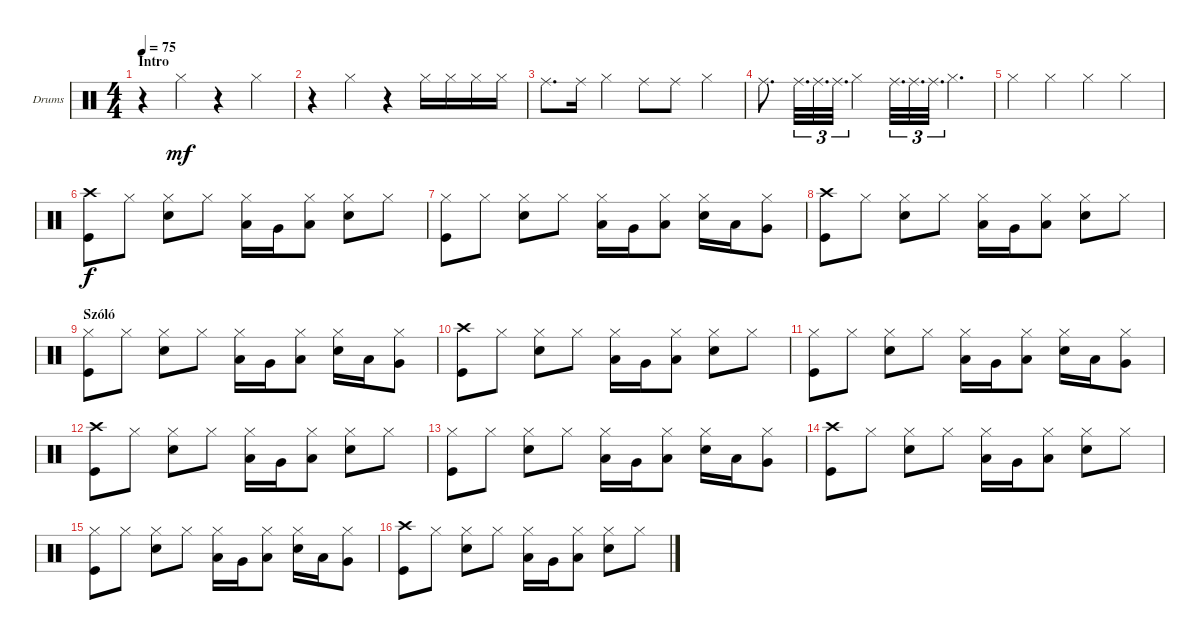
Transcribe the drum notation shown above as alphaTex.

\defaultSystemsLayout 4
\bracketExtendMode groupsimilarinstruments
\firstSystemTrackNameOrientation horizontal
\otherSystemsTrackNameOrientation horizontal
\track ("Craig Nunenmacher" "Drums") {instrument percussion}
\staff {score}
\articulation defaults
\ts (4 4)
\section ("" "Intro")
\tempo 75
\clef neutral
\ks c
r.4{dy mf} "Hi-Hat (closed)".4 r.4 "Hi-Hat (closed)".4 |
r.4 "Hi-Hat (closed)".4 r.4 "Hi-Hat (closed)".16 "Hi-Hat (closed)".16 "Hi-Hat (closed)".16 "Hi-Hat (closed)".16 |
"Ride (middle)".8{d} "Ride (middle)".16 "Hi-Hat (closed)".4 "Ride (middle)".8 "Ride (middle)".8 "Hi-Hat (closed)".4 |
"Ride (middle)".8{d} "Ride (middle)".32{d tu (3 2)} "Ride (middle)".32{d tu (3 2)} "Ride (middle)".32{d tu (3 2)} "Hi-Hat (closed)".4 "Ride (middle)".32{d tu (3 2)} "Ride (middle)".32{d tu (3 2)} "Ride (middle)".32{d tu (3 2)} "Hi-Hat (closed)".4{d} |
"Hi-Hat (closed)".4 "Hi-Hat (closed)".4 "Hi-Hat (closed)".4 "Hi-Hat (closed)".4 |
("Kick (hit)" "Crash high (hit)").8{dy f} "Hi-Hat (closed)".8 ("Snare (hit) 2" "Hi-Hat (closed)").8 "Hi-Hat (closed)".8 ("Low Tom (hit)" "Hi-Hat (closed)").16 "Very Low Tom (hit)".16 ("Low Tom (hit)" "Hi-Hat (closed)").8 ("Snare (hit) 2" "Hi-Hat (closed)").8 "Hi-Hat (closed)".8 |
("Kick (hit)" "Hi-Hat (closed)").8 "Hi-Hat (closed)".8 ("Snare (hit) 2" "Hi-Hat (closed)").8 "Hi-Hat (closed)".8 ("Low Tom (hit)" "Hi-Hat (closed)").16 "Very Low Tom (hit)".16 ("Low Tom (hit)" "Hi-Hat (closed)").8 ("Snare (hit) 2" "Hi-Hat (closed)").16 "Low Tom (hit)".16 ("Very Low Tom (hit)" "Hi-Hat (closed)").8 |
("Kick (hit)" "Crash high (hit)").8 "Hi-Hat (closed)".8 ("Snare (hit) 2" "Hi-Hat (closed)").8 "Hi-Hat (closed)".8 ("Low Tom (hit)" "Hi-Hat (closed)").16 "Very Low Tom (hit)".16 ("Low Tom (hit)" "Hi-Hat (closed)").8 ("Snare (hit) 2" "Hi-Hat (closed)").8 "Hi-Hat (closed)".8 |
\section ("" "Szóló")
("Kick (hit)" "Hi-Hat (closed)").8 "Hi-Hat (closed)".8 ("Snare (hit) 2" "Hi-Hat (closed)").8 "Hi-Hat (closed)".8 ("Low Tom (hit)" "Hi-Hat (closed)").16 "Very Low Tom (hit)".16 ("Low Tom (hit)" "Hi-Hat (closed)").8 ("Snare (hit) 2" "Hi-Hat (closed)").16 "Low Tom (hit)".16 ("Very Low Tom (hit)" "Hi-Hat (closed)").8 |
("Kick (hit)" "Crash high (hit)").8 "Hi-Hat (closed)".8 ("Snare (hit) 2" "Hi-Hat (closed)").8 "Hi-Hat (closed)".8 ("Low Tom (hit)" "Hi-Hat (closed)").16 "Very Low Tom (hit)".16 ("Low Tom (hit)" "Hi-Hat (closed)").8 ("Snare (hit) 2" "Hi-Hat (closed)").8 "Hi-Hat (closed)".8 |
("Kick (hit)" "Hi-Hat (closed)").8 "Hi-Hat (closed)".8 ("Snare (hit) 2" "Hi-Hat (closed)").8 "Hi-Hat (closed)".8 ("Low Tom (hit)" "Hi-Hat (closed)").16 "Very Low Tom (hit)".16 ("Low Tom (hit)" "Hi-Hat (closed)").8 ("Snare (hit) 2" "Hi-Hat (closed)").16 "Low Tom (hit)".16 ("Very Low Tom (hit)" "Hi-Hat (closed)").8 |
("Kick (hit)" "Crash high (hit)").8 "Hi-Hat (closed)".8 ("Snare (hit) 2" "Hi-Hat (closed)").8 "Hi-Hat (closed)".8 ("Low Tom (hit)" "Hi-Hat (closed)").16 "Very Low Tom (hit)".16 ("Low Tom (hit)" "Hi-Hat (closed)").8 ("Snare (hit) 2" "Hi-Hat (closed)").8 "Hi-Hat (closed)".8 |
("Kick (hit)" "Hi-Hat (closed)").8 "Hi-Hat (closed)".8 ("Snare (hit) 2" "Hi-Hat (closed)").8 "Hi-Hat (closed)".8 ("Low Tom (hit)" "Hi-Hat (closed)").16 "Very Low Tom (hit)".16 ("Low Tom (hit)" "Hi-Hat (closed)").8 ("Snare (hit) 2" "Hi-Hat (closed)").16 "Low Tom (hit)".16 ("Very Low Tom (hit)" "Hi-Hat (closed)").8 |
("Kick (hit)" "Crash high (hit)").8 "Hi-Hat (closed)".8 ("Snare (hit) 2" "Hi-Hat (closed)").8 "Hi-Hat (closed)".8 ("Low Tom (hit)" "Hi-Hat (closed)").16 "Very Low Tom (hit)".16 ("Low Tom (hit)" "Hi-Hat (closed)").8 ("Snare (hit) 2" "Hi-Hat (closed)").8 "Hi-Hat (closed)".8 |
("Kick (hit)" "Hi-Hat (closed)").8 "Hi-Hat (closed)".8 ("Snare (hit) 2" "Hi-Hat (closed)").8 "Hi-Hat (closed)".8 ("Low Tom (hit)" "Hi-Hat (closed)").16 "Very Low Tom (hit)".16 ("Low Tom (hit)" "Hi-Hat (closed)").8 ("Snare (hit) 2" "Hi-Hat (closed)").16 "Low Tom (hit)".16 ("Very Low Tom (hit)" "Hi-Hat (closed)").8 |
("Kick (hit)" "Crash high (hit)").8 "Hi-Hat (closed)".8 ("Snare (hit) 2" "Hi-Hat (closed)").8 "Hi-Hat (closed)".8 ("Low Tom (hit)" "Hi-Hat (closed)").16 "Very Low Tom (hit)".16 ("Low Tom (hit)" "Hi-Hat (closed)").8 ("Snare (hit) 2" "Hi-Hat (closed)").8 "Hi-Hat (closed)".8
